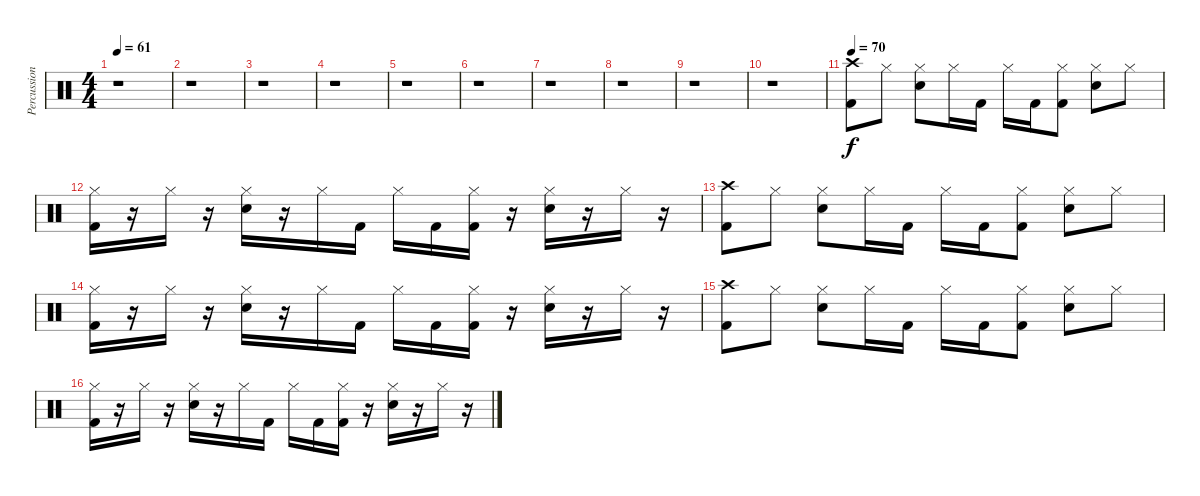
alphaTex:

\track ("Percussion" "Percussion") {instrument percussion}
\staff {score}
\articulation defaults
\ts (4 4)
\tempo 61
\clef neutral
\ks c
r.1{dy f} |
r.1 |
r.1 |
r.1 |
r.1 |
r.1 |
r.1 |
r.1 |
r.1 |
r.1 |
\tempo 70
("Crash high (hit)" "Kick (hit) 2").8 "Hi-Hat (closed)".8 ("Hi-Hat (closed)" "Snare (hit) 2").8 "Hi-Hat (closed)".16 "Kick (hit) 2".16 "Hi-Hat (closed)".16 "Kick (hit) 2".16 ("Hi-Hat (closed)" "Kick (hit) 2").8 ("Hi-Hat (closed)" "Snare (hit) 2").8 "Hi-Hat (closed)".8 |
("Hi-Hat (closed)" "Kick (hit) 2").16 r.16 "Hi-Hat (closed)".16 r.16 ("Hi-Hat (closed)" "Snare (hit) 2").16 r.16 "Hi-Hat (closed)".16 "Kick (hit) 2".16 "Hi-Hat (closed)".16 "Kick (hit) 2".16 ("Hi-Hat (closed)" "Kick (hit) 2").16 r.16 ("Hi-Hat (closed)" "Snare (hit) 2").16 r.16 "Hi-Hat (closed)".16 r.16 |
("Crash high (hit)" "Kick (hit) 2").8 "Hi-Hat (closed)".8 ("Hi-Hat (closed)" "Snare (hit) 2").8 "Hi-Hat (closed)".16 "Kick (hit) 2".16 "Hi-Hat (closed)".16 "Kick (hit) 2".16 ("Hi-Hat (closed)" "Kick (hit) 2").8 ("Hi-Hat (closed)" "Snare (hit) 2").8 "Hi-Hat (closed)".8 |
("Hi-Hat (closed)" "Kick (hit) 2").16 r.16 "Hi-Hat (closed)".16 r.16 ("Hi-Hat (closed)" "Snare (hit) 2").16 r.16 "Hi-Hat (closed)".16 "Kick (hit) 2".16 "Hi-Hat (closed)".16 "Kick (hit) 2".16 ("Hi-Hat (closed)" "Kick (hit) 2").16 r.16 ("Hi-Hat (closed)" "Snare (hit) 2").16 r.16 "Hi-Hat (closed)".16 r.16 |
("Crash high (hit)" "Kick (hit) 2").8 "Hi-Hat (closed)".8 ("Hi-Hat (closed)" "Snare (hit) 2").8 "Hi-Hat (closed)".16 "Kick (hit) 2".16 "Hi-Hat (closed)".16 "Kick (hit) 2".16 ("Hi-Hat (closed)" "Kick (hit) 2").8 ("Hi-Hat (closed)" "Snare (hit) 2").8 "Hi-Hat (closed)".8 |
("Hi-Hat (closed)" "Kick (hit) 2").16 r.16 "Hi-Hat (closed)".16 r.16 ("Hi-Hat (closed)" "Snare (hit) 2").16 r.16 "Hi-Hat (closed)".16 "Kick (hit) 2".16 "Hi-Hat (closed)".16 "Kick (hit) 2".16 ("Hi-Hat (closed)" "Kick (hit) 2").16 r.16 ("Hi-Hat (closed)" "Snare (hit) 2").16 r.16 "Hi-Hat (closed)".16 r.16
